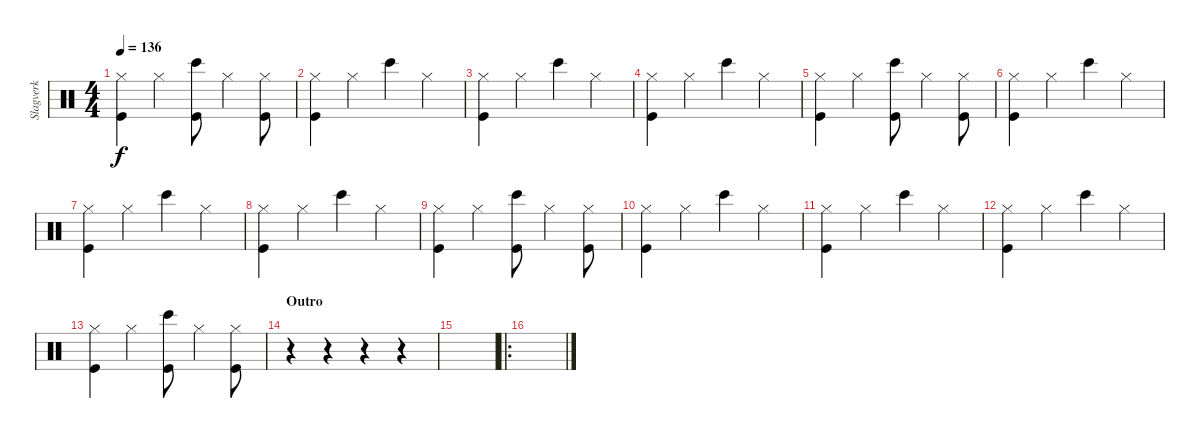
\track ("Slagverk" "Slagverk") {instrument percussion}
\staff {score}
\articulation defaults
\ts (4 4)
\tempo 136
\clef neutral
\ks c
("Hi-Hat (closed)" "Kick (hit)").4{dy f} "Hi-Hat (closed)".4 ("Bongo High (hit)" "Kick (hit)").8 "Hi-Hat (closed)".4 ("Hi-Hat (closed)" "Kick (hit)").8 |
("Hi-Hat (closed)" "Kick (hit)").4 "Hi-Hat (closed)".4 "Bongo High (hit)".4 "Hi-Hat (closed)".4 |
("Hi-Hat (closed)" "Kick (hit)").4 "Hi-Hat (closed)".4 "Bongo High (hit)".4 "Hi-Hat (closed)".4 |
("Hi-Hat (closed)" "Kick (hit)").4 "Hi-Hat (closed)".4 "Bongo High (hit)".4 "Hi-Hat (closed)".4 |
("Hi-Hat (closed)" "Kick (hit)").4 "Hi-Hat (closed)".4 ("Bongo High (hit)" "Kick (hit)").8 "Hi-Hat (closed)".4 ("Hi-Hat (closed)" "Kick (hit)").8 |
("Hi-Hat (closed)" "Kick (hit)").4 "Hi-Hat (closed)".4 "Bongo High (hit)".4 "Hi-Hat (closed)".4 |
("Hi-Hat (closed)" "Kick (hit)").4 "Hi-Hat (closed)".4 "Bongo High (hit)".4 "Hi-Hat (closed)".4 |
("Hi-Hat (closed)" "Kick (hit)").4 "Hi-Hat (closed)".4 "Bongo High (hit)".4 "Hi-Hat (closed)".4 |
("Hi-Hat (closed)" "Kick (hit)").4 "Hi-Hat (closed)".4 ("Bongo High (hit)" "Kick (hit)").8 "Hi-Hat (closed)".4 ("Hi-Hat (closed)" "Kick (hit)").8 |
("Hi-Hat (closed)" "Kick (hit)").4 "Hi-Hat (closed)".4 "Bongo High (hit)".4 "Hi-Hat (closed)".4 |
("Hi-Hat (closed)" "Kick (hit)").4 "Hi-Hat (closed)".4 "Bongo High (hit)".4 "Hi-Hat (closed)".4 |
("Hi-Hat (closed)" "Kick (hit)").4 "Hi-Hat (closed)".4 "Bongo High (hit)".4 "Hi-Hat (closed)".4 |
("Hi-Hat (closed)" "Kick (hit)").4 "Hi-Hat (closed)".4 ("Bongo High (hit)" "Kick (hit)").8 "Hi-Hat (closed)".4 ("Hi-Hat (closed)" "Kick (hit)").8 |
\section ("" "Outro")
r.4 r.4 r.4 r.4 |
|
\ro
